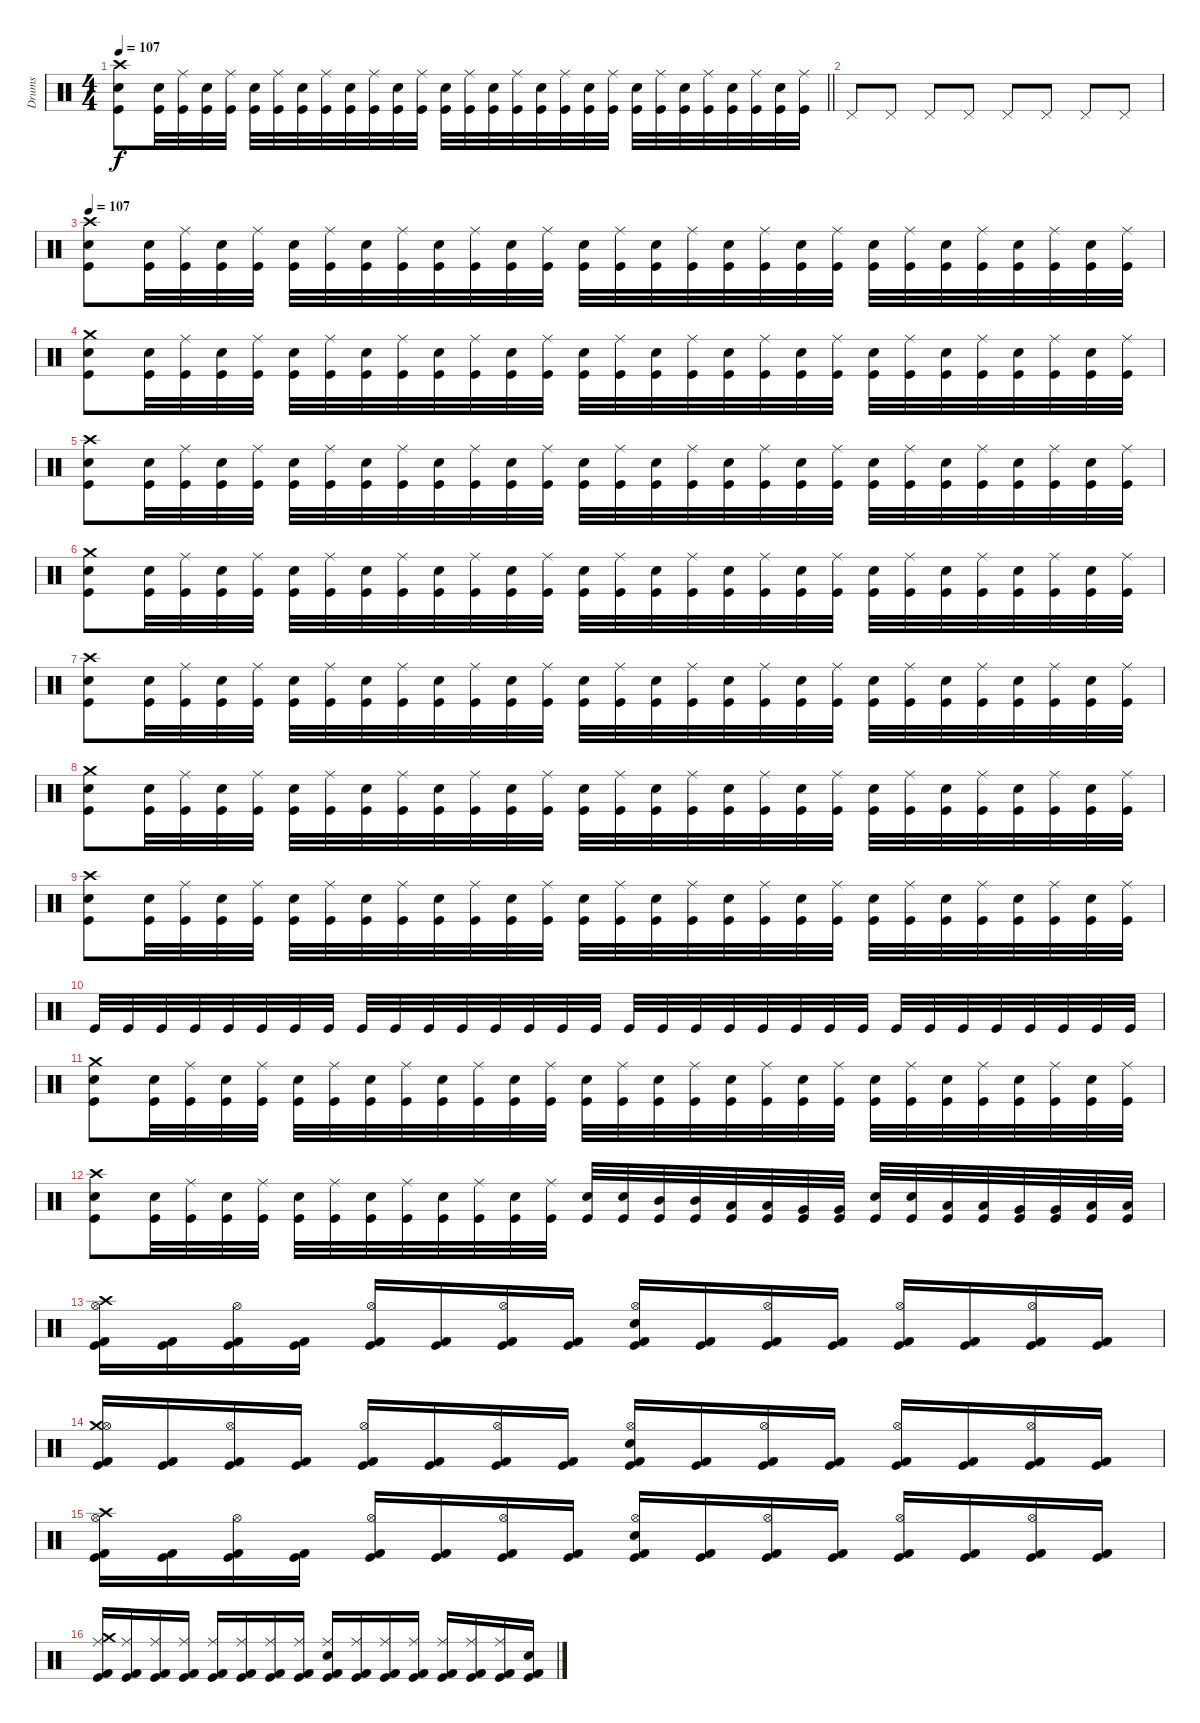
\track ("Drums" "Drums") {instrument percussion}
\staff
\articulation defaults
\ts (4 4)
\tempo 107
\clef neutral
\barLineRight lightlight
\ks c
("Crash high (hit)" "Electric Snare (hit)" "Kick (hit)").8{dy f} ("Electric Snare (hit)" "Kick (hit)").32 ("Ride (middle)" "Kick (hit)").32 ("Electric Snare (hit)" "Kick (hit)").32 ("Ride (middle)" "Kick (hit)").32 ("Electric Snare (hit)" "Kick (hit)").32 ("Ride (middle)" "Kick (hit)").32 ("Electric Snare (hit)" "Kick (hit)").32 ("Ride (middle)" "Kick (hit)").32 ("Electric Snare (hit)" "Kick (hit)").32 ("Ride (middle)" "Kick (hit)").32 ("Electric Snare (hit)" "Kick (hit)").32 ("Ride (middle)" "Kick (hit)").32 ("Electric Snare (hit)" "Kick (hit)").32 ("Ride (middle)" "Kick (hit)").32 ("Electric Snare (hit)" "Kick (hit)").32 ("Ride (middle)" "Kick (hit)").32 ("Electric Snare (hit)" "Kick (hit)").32 ("Ride (middle)" "Kick (hit)").32 ("Electric Snare (hit)" "Kick (hit)").32 ("Ride (middle)" "Kick (hit)").32 ("Electric Snare (hit)" "Kick (hit)").32 ("Ride (middle)" "Kick (hit)").32 ("Electric Snare (hit)" "Kick (hit)").32 ("Ride (middle)" "Kick (hit)").32 ("Electric Snare (hit)" "Kick (hit)").32 ("Ride (middle)" "Kick (hit)").32 ("Electric Snare (hit)" "Kick (hit)").32 ("Ride (middle)" "Kick (hit)").32 |
\section ("" "")
"Pedal Hi-Hat (hit)".8 "Pedal Hi-Hat (hit)".8 "Pedal Hi-Hat (hit)".8 "Pedal Hi-Hat (hit)".8 "Pedal Hi-Hat (hit)".8 "Pedal Hi-Hat (hit)".8 "Pedal Hi-Hat (hit)".8 "Pedal Hi-Hat (hit)".8 |
\tempo 107
("Crash high (hit)" "Electric Snare (hit)" "Kick (hit)").8 ("Electric Snare (hit)" "Kick (hit)").32 ("Ride (middle)" "Kick (hit)").32 ("Electric Snare (hit)" "Kick (hit)").32 ("Ride (middle)" "Kick (hit)").32 ("Electric Snare (hit)" "Kick (hit)").32 ("Ride (middle)" "Kick (hit)").32 ("Electric Snare (hit)" "Kick (hit)").32 ("Ride (middle)" "Kick (hit)").32 ("Electric Snare (hit)" "Kick (hit)").32 ("Ride (middle)" "Kick (hit)").32 ("Electric Snare (hit)" "Kick (hit)").32 ("Ride (middle)" "Kick (hit)").32 ("Electric Snare (hit)" "Kick (hit)").32 ("Ride (middle)" "Kick (hit)").32 ("Electric Snare (hit)" "Kick (hit)").32 ("Ride (middle)" "Kick (hit)").32 ("Electric Snare (hit)" "Kick (hit)").32 ("Ride (middle)" "Kick (hit)").32 ("Electric Snare (hit)" "Kick (hit)").32 ("Ride (middle)" "Kick (hit)").32 ("Electric Snare (hit)" "Kick (hit)").32 ("Ride (middle)" "Kick (hit)").32 ("Electric Snare (hit)" "Kick (hit)").32 ("Ride (middle)" "Kick (hit)").32 ("Electric Snare (hit)" "Kick (hit)").32 ("Ride (middle)" "Kick (hit)").32 ("Electric Snare (hit)" "Kick (hit)").32 ("Ride (middle)" "Kick (hit)").32 |
("Crash medium (hit)" "Electric Snare (hit)" "Kick (hit)").8 ("Electric Snare (hit)" "Kick (hit)").32 ("Ride (middle)" "Kick (hit)").32 ("Electric Snare (hit)" "Kick (hit)").32 ("Ride (middle)" "Kick (hit)").32 ("Electric Snare (hit)" "Kick (hit)").32 ("Ride (middle)" "Kick (hit)").32 ("Electric Snare (hit)" "Kick (hit)").32 ("Ride (middle)" "Kick (hit)").32 ("Electric Snare (hit)" "Kick (hit)").32 ("Ride (middle)" "Kick (hit)").32 ("Electric Snare (hit)" "Kick (hit)").32 ("Ride (middle)" "Kick (hit)").32 ("Electric Snare (hit)" "Kick (hit)").32 ("Ride (middle)" "Kick (hit)").32 ("Electric Snare (hit)" "Kick (hit)").32 ("Ride (middle)" "Kick (hit)").32 ("Electric Snare (hit)" "Kick (hit)").32 ("Ride (middle)" "Kick (hit)").32 ("Electric Snare (hit)" "Kick (hit)").32 ("Ride (middle)" "Kick (hit)").32 ("Electric Snare (hit)" "Kick (hit)").32 ("Ride (middle)" "Kick (hit)").32 ("Electric Snare (hit)" "Kick (hit)").32 ("Ride (middle)" "Kick (hit)").32 ("Electric Snare (hit)" "Kick (hit)").32 ("Ride (middle)" "Kick (hit)").32 ("Electric Snare (hit)" "Kick (hit)").32 ("Ride (middle)" "Kick (hit)").32 |
("Crash high (hit)" "Electric Snare (hit)" "Kick (hit)").8 ("Electric Snare (hit)" "Kick (hit)").32 ("Ride (middle)" "Kick (hit)").32 ("Electric Snare (hit)" "Kick (hit)").32 ("Ride (middle)" "Kick (hit)").32 ("Electric Snare (hit)" "Kick (hit)").32 ("Ride (middle)" "Kick (hit)").32 ("Electric Snare (hit)" "Kick (hit)").32 ("Ride (middle)" "Kick (hit)").32 ("Electric Snare (hit)" "Kick (hit)").32 ("Ride (middle)" "Kick (hit)").32 ("Electric Snare (hit)" "Kick (hit)").32 ("Ride (middle)" "Kick (hit)").32 ("Electric Snare (hit)" "Kick (hit)").32 ("Ride (middle)" "Kick (hit)").32 ("Electric Snare (hit)" "Kick (hit)").32 ("Ride (middle)" "Kick (hit)").32 ("Electric Snare (hit)" "Kick (hit)").32 ("Ride (middle)" "Kick (hit)").32 ("Electric Snare (hit)" "Kick (hit)").32 ("Ride (middle)" "Kick (hit)").32 ("Electric Snare (hit)" "Kick (hit)").32 ("Ride (middle)" "Kick (hit)").32 ("Electric Snare (hit)" "Kick (hit)").32 ("Ride (middle)" "Kick (hit)").32 ("Electric Snare (hit)" "Kick (hit)").32 ("Ride (middle)" "Kick (hit)").32 ("Electric Snare (hit)" "Kick (hit)").32 ("Ride (middle)" "Kick (hit)").32 |
("Crash medium (hit)" "Electric Snare (hit)" "Kick (hit)").8 ("Electric Snare (hit)" "Kick (hit)").32 ("Ride (middle)" "Kick (hit)").32 ("Electric Snare (hit)" "Kick (hit)").32 ("Ride (middle)" "Kick (hit)").32 ("Electric Snare (hit)" "Kick (hit)").32 ("Ride (middle)" "Kick (hit)").32 ("Electric Snare (hit)" "Kick (hit)").32 ("Ride (middle)" "Kick (hit)").32 ("Electric Snare (hit)" "Kick (hit)").32 ("Ride (middle)" "Kick (hit)").32 ("Electric Snare (hit)" "Kick (hit)").32 ("Ride (middle)" "Kick (hit)").32 ("Electric Snare (hit)" "Kick (hit)").32 ("Ride (middle)" "Kick (hit)").32 ("Electric Snare (hit)" "Kick (hit)").32 ("Ride (middle)" "Kick (hit)").32 ("Electric Snare (hit)" "Kick (hit)").32 ("Ride (middle)" "Kick (hit)").32 ("Electric Snare (hit)" "Kick (hit)").32 ("Ride (middle)" "Kick (hit)").32 ("Electric Snare (hit)" "Kick (hit)").32 ("Ride (middle)" "Kick (hit)").32 ("Electric Snare (hit)" "Kick (hit)").32 ("Ride (middle)" "Kick (hit)").32 ("Electric Snare (hit)" "Kick (hit)").32 ("Ride (middle)" "Kick (hit)").32 ("Electric Snare (hit)" "Kick (hit)").32 ("Ride (middle)" "Kick (hit)").32 |
("Crash high (hit)" "Electric Snare (hit)" "Kick (hit)").8 ("Electric Snare (hit)" "Kick (hit)").32 ("Ride (middle)" "Kick (hit)").32 ("Electric Snare (hit)" "Kick (hit)").32 ("Ride (middle)" "Kick (hit)").32 ("Electric Snare (hit)" "Kick (hit)").32 ("Ride (middle)" "Kick (hit)").32 ("Electric Snare (hit)" "Kick (hit)").32 ("Ride (middle)" "Kick (hit)").32 ("Electric Snare (hit)" "Kick (hit)").32 ("Ride (middle)" "Kick (hit)").32 ("Electric Snare (hit)" "Kick (hit)").32 ("Ride (middle)" "Kick (hit)").32 ("Electric Snare (hit)" "Kick (hit)").32 ("Ride (middle)" "Kick (hit)").32 ("Electric Snare (hit)" "Kick (hit)").32 ("Ride (middle)" "Kick (hit)").32 ("Electric Snare (hit)" "Kick (hit)").32 ("Ride (middle)" "Kick (hit)").32 ("Electric Snare (hit)" "Kick (hit)").32 ("Ride (middle)" "Kick (hit)").32 ("Electric Snare (hit)" "Kick (hit)").32 ("Ride (middle)" "Kick (hit)").32 ("Electric Snare (hit)" "Kick (hit)").32 ("Ride (middle)" "Kick (hit)").32 ("Electric Snare (hit)" "Kick (hit)").32 ("Ride (middle)" "Kick (hit)").32 ("Electric Snare (hit)" "Kick (hit)").32 ("Ride (middle)" "Kick (hit)").32 |
("Crash medium (hit)" "Electric Snare (hit)" "Kick (hit)").8 ("Electric Snare (hit)" "Kick (hit)").32 ("Ride (middle)" "Kick (hit)").32 ("Electric Snare (hit)" "Kick (hit)").32 ("Ride (middle)" "Kick (hit)").32 ("Electric Snare (hit)" "Kick (hit)").32 ("Ride (middle)" "Kick (hit)").32 ("Electric Snare (hit)" "Kick (hit)").32 ("Ride (middle)" "Kick (hit)").32 ("Electric Snare (hit)" "Kick (hit)").32 ("Ride (middle)" "Kick (hit)").32 ("Electric Snare (hit)" "Kick (hit)").32 ("Ride (middle)" "Kick (hit)").32 ("Electric Snare (hit)" "Kick (hit)").32 ("Ride (middle)" "Kick (hit)").32 ("Electric Snare (hit)" "Kick (hit)").32 ("Ride (middle)" "Kick (hit)").32 ("Electric Snare (hit)" "Kick (hit)").32 ("Ride (middle)" "Kick (hit)").32 ("Electric Snare (hit)" "Kick (hit)").32 ("Ride (middle)" "Kick (hit)").32 ("Electric Snare (hit)" "Kick (hit)").32 ("Ride (middle)" "Kick (hit)").32 ("Electric Snare (hit)" "Kick (hit)").32 ("Ride (middle)" "Kick (hit)").32 ("Electric Snare (hit)" "Kick (hit)").32 ("Ride (middle)" "Kick (hit)").32 ("Electric Snare (hit)" "Kick (hit)").32 ("Ride (middle)" "Kick (hit)").32 |
("Crash high (hit)" "Electric Snare (hit)" "Kick (hit)").8 ("Electric Snare (hit)" "Kick (hit)").32 ("Ride (middle)" "Kick (hit)").32 ("Electric Snare (hit)" "Kick (hit)").32 ("Ride (middle)" "Kick (hit)").32 ("Electric Snare (hit)" "Kick (hit)").32 ("Ride (middle)" "Kick (hit)").32 ("Electric Snare (hit)" "Kick (hit)").32 ("Ride (middle)" "Kick (hit)").32 ("Electric Snare (hit)" "Kick (hit)").32 ("Ride (middle)" "Kick (hit)").32 ("Electric Snare (hit)" "Kick (hit)").32 ("Ride (middle)" "Kick (hit)").32 ("Electric Snare (hit)" "Kick (hit)").32 ("Ride (middle)" "Kick (hit)").32 ("Electric Snare (hit)" "Kick (hit)").32 ("Ride (middle)" "Kick (hit)").32 ("Electric Snare (hit)" "Kick (hit)").32 ("Ride (middle)" "Kick (hit)").32 ("Electric Snare (hit)" "Kick (hit)").32 ("Ride (middle)" "Kick (hit)").32 ("Electric Snare (hit)" "Kick (hit)").32 ("Ride (middle)" "Kick (hit)").32 ("Electric Snare (hit)" "Kick (hit)").32 ("Ride (middle)" "Kick (hit)").32 ("Electric Snare (hit)" "Kick (hit)").32 ("Ride (middle)" "Kick (hit)").32 ("Electric Snare (hit)" "Kick (hit)").32 ("Ride (middle)" "Kick (hit)").32 |
"Kick (hit)".32 "Kick (hit)".32 "Kick (hit)".32 "Kick (hit)".32 "Kick (hit)".32 "Kick (hit)".32 "Kick (hit)".32 "Kick (hit)".32 "Kick (hit)".32 "Kick (hit)".32 "Kick (hit)".32 "Kick (hit)".32 "Kick (hit)".32 "Kick (hit)".32 "Kick (hit)".32 "Kick (hit)".32 "Kick (hit)".32 "Kick (hit)".32 "Kick (hit)".32 "Kick (hit)".32 "Kick (hit)".32 "Kick (hit)".32 "Kick (hit)".32 "Kick (hit)".32 "Kick (hit)".32 "Kick (hit)".32 "Kick (hit)".32 "Kick (hit)".32 "Kick (hit)".32 "Kick (hit)".32 "Kick (hit)".32 "Kick (hit)".32 |
("Crash medium (hit)" "Electric Snare (hit)" "Kick (hit)").8 ("Electric Snare (hit)" "Kick (hit)").32 ("Ride (middle)" "Kick (hit)").32 ("Electric Snare (hit)" "Kick (hit)").32 ("Ride (middle)" "Kick (hit)").32 ("Electric Snare (hit)" "Kick (hit)").32 ("Ride (middle)" "Kick (hit)").32 ("Electric Snare (hit)" "Kick (hit)").32 ("Ride (middle)" "Kick (hit)").32 ("Electric Snare (hit)" "Kick (hit)").32 ("Ride (middle)" "Kick (hit)").32 ("Electric Snare (hit)" "Kick (hit)").32 ("Ride (middle)" "Kick (hit)").32 ("Electric Snare (hit)" "Kick (hit)").32 ("Ride (middle)" "Kick (hit)").32 ("Electric Snare (hit)" "Kick (hit)").32 ("Ride (middle)" "Kick (hit)").32 ("Electric Snare (hit)" "Kick (hit)").32 ("Ride (middle)" "Kick (hit)").32 ("Electric Snare (hit)" "Kick (hit)").32 ("Ride (middle)" "Kick (hit)").32 ("Electric Snare (hit)" "Kick (hit)").32 ("Ride (middle)" "Kick (hit)").32 ("Electric Snare (hit)" "Kick (hit)").32 ("Ride (middle)" "Kick (hit)").32 ("Electric Snare (hit)" "Kick (hit)").32 ("Ride (middle)" "Kick (hit)").32 ("Electric Snare (hit)" "Kick (hit)").32 ("Ride (middle)" "Kick (hit)").32 |
("Crash high (hit)" "Electric Snare (hit)" "Kick (hit)").8 ("Electric Snare (hit)" "Kick (hit)").32 ("Ride (middle)" "Kick (hit)").32 ("Electric Snare (hit)" "Kick (hit)").32 ("Ride (middle)" "Kick (hit)").32 ("Electric Snare (hit)" "Kick (hit)").32 ("Ride (middle)" "Kick (hit)").32 ("Electric Snare (hit)" "Kick (hit)").32 ("Ride (middle)" "Kick (hit)").32 ("Electric Snare (hit)" "Kick (hit)").32 ("Ride (middle)" "Kick (hit)").32 ("Electric Snare (hit)" "Kick (hit)").32 ("Ride (middle)" "Kick (hit)").32 ("Electric Snare (hit)" "Kick (hit)").32 ("Electric Snare (hit)" "Kick (hit)").32 ("Mid Tom (hit)" "Kick (hit)").32 ("Mid Tom (hit)" "Kick (hit)").32 ("Low Tom (hit)" "Kick (hit)").32 ("Low Tom (hit)" "Kick (hit)").32 ("Very Low Tom (hit)" "Kick (hit)").32 ("Very Low Tom (hit)" "Kick (hit)").32 ("Electric Snare (hit)" "Kick (hit)").32 ("Electric Snare (hit)" "Kick (hit)").32 ("Low Tom (hit)" "Kick (hit)").32 ("Low Tom (hit)" "Kick (hit)").32 ("Very Low Tom (hit)" "Kick (hit)").32 ("Very Low Tom (hit)" "Kick (hit)").32 ("Low Floor Tom (hit)" "Kick (hit)").32 ("Low Floor Tom (hit)" "Kick (hit)").32 |
("Crash high (hit)" "Hi-Hat (open)" "Kick (hit) 2" "Kick (hit)").16 ("Kick (hit) 2" "Kick (hit)").16 ("Hi-Hat (open)" "Kick (hit) 2" "Kick (hit)").16 ("Kick (hit) 2" "Kick (hit)").16 ("Hi-Hat (open)" "Kick (hit) 2" "Kick (hit)").16 ("Kick (hit) 2" "Kick (hit)").16 ("Hi-Hat (open)" "Kick (hit) 2" "Kick (hit)").16 ("Kick (hit) 2" "Kick (hit)").16 ("Hi-Hat (open)" "Electric Snare (hit)" "Kick (hit) 2" "Kick (hit)").16 ("Kick (hit) 2" "Kick (hit)").16 ("Hi-Hat (open)" "Kick (hit) 2" "Kick (hit)").16 ("Kick (hit) 2" "Kick (hit)").16 ("Hi-Hat (open)" "Kick (hit) 2" "Kick (hit)").16 ("Kick (hit) 2" "Kick (hit)").16 ("Hi-Hat (open)" "Kick (hit) 2" "Kick (hit)").16 ("Kick (hit) 2" "Kick (hit)").16 |
("Crash medium (hit)" "Hi-Hat (open)" "Kick (hit) 2" "Kick (hit)").16 ("Kick (hit) 2" "Kick (hit)").16 ("Hi-Hat (open)" "Kick (hit) 2" "Kick (hit)").16 ("Kick (hit) 2" "Kick (hit)").16 ("Hi-Hat (open)" "Kick (hit) 2" "Kick (hit)").16 ("Kick (hit) 2" "Kick (hit)").16 ("Hi-Hat (open)" "Kick (hit) 2" "Kick (hit)").16 ("Kick (hit) 2" "Kick (hit)").16 ("Hi-Hat (open)" "Electric Snare (hit)" "Kick (hit) 2" "Kick (hit)").16 ("Kick (hit) 2" "Kick (hit)").16 ("Hi-Hat (open)" "Kick (hit) 2" "Kick (hit)").16 ("Kick (hit) 2" "Kick (hit)").16 ("Hi-Hat (open)" "Kick (hit) 2" "Kick (hit)").16 ("Kick (hit) 2" "Kick (hit)").16 ("Hi-Hat (open)" "Kick (hit) 2" "Kick (hit)").16 ("Kick (hit) 2" "Kick (hit)").16 |
("Crash high (hit)" "Hi-Hat (open)" "Kick (hit) 2" "Kick (hit)").16 ("Kick (hit) 2" "Kick (hit)").16 ("Hi-Hat (open)" "Kick (hit) 2" "Kick (hit)").16 ("Kick (hit) 2" "Kick (hit)").16 ("Hi-Hat (open)" "Kick (hit) 2" "Kick (hit)").16 ("Kick (hit) 2" "Kick (hit)").16 ("Hi-Hat (open)" "Kick (hit) 2" "Kick (hit)").16 ("Kick (hit) 2" "Kick (hit)").16 ("Hi-Hat (open)" "Electric Snare (hit)" "Kick (hit) 2" "Kick (hit)").16 ("Kick (hit) 2" "Kick (hit)").16 ("Hi-Hat (open)" "Kick (hit) 2" "Kick (hit)").16 ("Kick (hit) 2" "Kick (hit)").16 ("Hi-Hat (open)" "Kick (hit) 2" "Kick (hit)").16 ("Kick (hit) 2" "Kick (hit)").16 ("Hi-Hat (open)" "Kick (hit) 2" "Kick (hit)").16 ("Kick (hit) 2" "Kick (hit)").16 |
("Crash medium (hit)" "Ride (middle)" "Kick (hit) 2" "Kick (hit)").16 ("Ride (middle)" "Kick (hit) 2" "Kick (hit)").16 ("Ride (middle)" "Kick (hit) 2" "Kick (hit)").16 ("Ride (middle)" "Kick (hit) 2" "Kick (hit)").16 ("Ride (middle)" "Kick (hit) 2" "Kick (hit)").16 ("Ride (middle)" "Kick (hit) 2" "Kick (hit)").16 ("Ride (middle)" "Kick (hit) 2" "Kick (hit)").16 ("Ride (middle)" "Kick (hit) 2" "Kick (hit)").16 ("Ride (middle)" "Electric Snare (hit)" "Kick (hit) 2" "Kick (hit)").16 ("Ride (middle)" "Kick (hit) 2" "Kick (hit)").16 ("Ride (middle)" "Kick (hit) 2" "Kick (hit)").16 ("Ride (middle)" "Kick (hit) 2" "Kick (hit)").16 ("Ride (middle)" "Kick (hit) 2" "Kick (hit)").16 ("Ride (middle)" "Kick (hit) 2" "Kick (hit)").16 ("Ride (middle)" "Kick (hit) 2" "Kick (hit)").16 ("Snare (hit)" "Kick (hit) 2" "Kick (hit)").16
